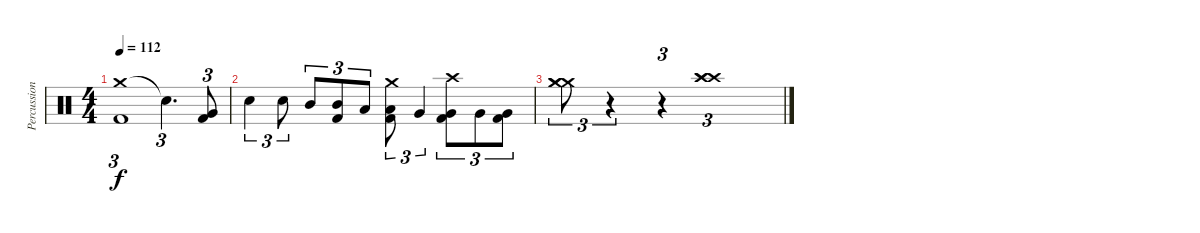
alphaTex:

\track ("Percussioni" "Percussion") {instrument percussion}
\staff {score}
\articulation defaults
\ts (4 4)
\tempo 112
\clef neutral
\ks c
("Crash medium (hit)" "Kick (hit) 2").1{tu (3 2) dy f} "Snare (hit)"{t}.4{d tu (3 2)} ("Very Low Tom (hit)" "Kick (hit) 2").8{tu (3 2)} |
"Snare (hit) 2".4{tu (3 2)} "Snare (hit) 2".8{tu (3 2)} "Mid Tom (hit)".8{tu (3 2)} ("Mid Tom (hit)" "Kick (hit) 2").8{tu (3 2)} "Low Tom (hit)".8{tu (3 2)} ("Crash medium (hit)" "Low Tom (hit)" "Kick (hit) 2").8{tu (3 2)} "Very Low Tom (hit)".4{tu (3 2)} ("Crash high (hit)" "Very Low Tom (hit)" "Kick (hit) 2").8{tu (3 2)} "Very Low Tom (hit)".8{tu (3 2)} ("Very Low Tom (hit)" "Kick (hit) 2").8{tu (3 2)} |
("Crash medium (hit)" "Crash medium (hit)" "Crash medium (hit)").8{tu (3 2)} r.4{tu (3 2)} r.4{tu (3 2)} ("Crash high (hit)" "Crash high (hit)" "Crash high (hit)").1{tu (3 2)}
